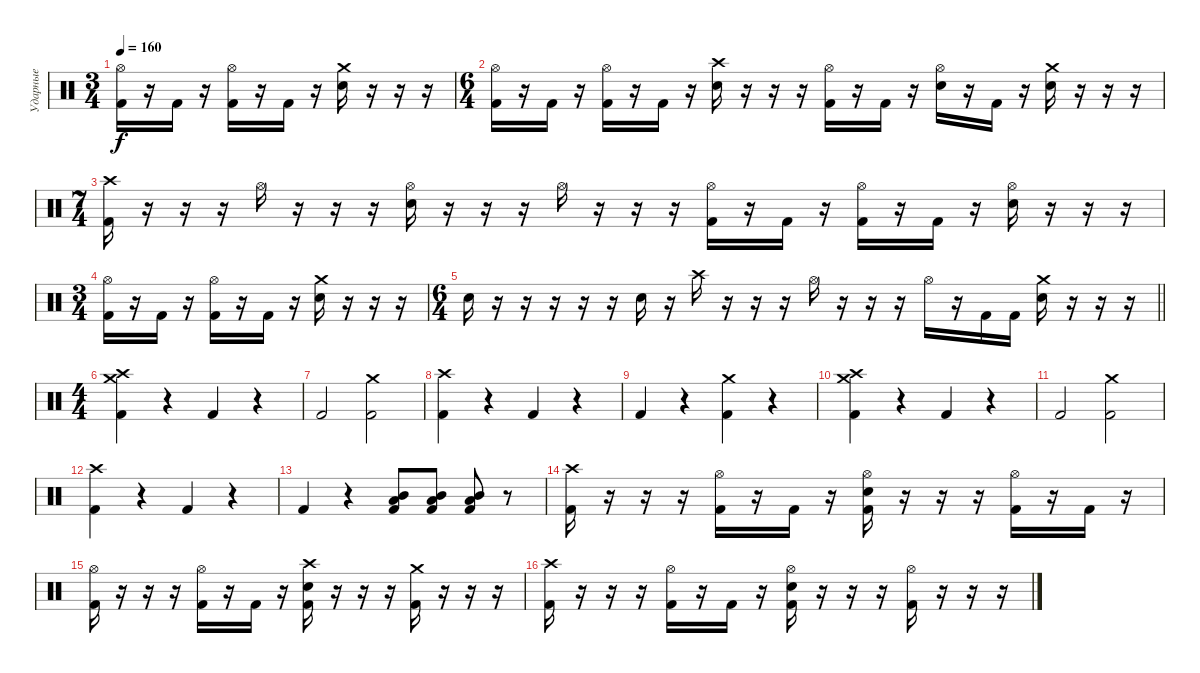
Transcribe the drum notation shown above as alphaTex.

\track ("Ударные" "Ударные") {instrument percussion}
\staff {score}
\articulation defaults
\ts (3 4)
\tempo 160
\clef neutral
\ks c
("Hi-Hat (open)" "Kick (hit) 2").16{dy f} r.16 "Kick (hit) 2".16 r.16 ("Hi-Hat (open)" "Kick (hit) 2").16 r.16 "Kick (hit) 2".16 r.16 ("Crash medium (hit)" "Electric Snare (hit)").16 r.16 r.16 r.16 |
\ts (6 4)
("Hi-Hat (open)" "Kick (hit) 2").16 r.16 "Kick (hit) 2".16 r.16 ("Hi-Hat (open)" "Kick (hit) 2").16 r.16 "Kick (hit) 2".16 r.16 ("Crash high (hit)" "Electric Snare (hit)").16 r.16 r.16 r.16 ("Hi-Hat (open)" "Kick (hit) 2").16 r.16 "Kick (hit) 2".16 r.16 ("Hi-Hat (open)" "Electric Snare (hit)").16 r.16 "Kick (hit) 2".16 r.16 ("Crash medium (hit)" "Electric Snare (hit)").16 r.16 r.16 r.16 |
\ts (7 4)
("Crash high (hit)" "Kick (hit) 2").16 r.16 r.16 r.16 "Hi-Hat (open)".16 r.16 r.16 r.16 ("Hi-Hat (open)" "Electric Snare (hit)").16 r.16 r.16 r.16 "Hi-Hat (open)".16 r.16 r.16 r.16 ("Hi-Hat (open)" "Kick (hit) 2").16 r.16 "Kick (hit) 2".16 r.16 ("Hi-Hat (open)" "Kick (hit) 2").16 r.16 "Kick (hit) 2".16 r.16 ("Hi-Hat (open)" "Electric Snare (hit)").16 r.16 r.16 r.16 |
\ts (3 4)
("Hi-Hat (open)" "Kick (hit) 2").16 r.16 "Kick (hit) 2".16 r.16 ("Hi-Hat (open)" "Kick (hit) 2").16 r.16 "Kick (hit) 2".16 r.16 ("Crash medium (hit)" "Electric Snare (hit)").16 r.16 r.16 r.16 |
\ts (6 4)
\barLineRight lightlight "Electric Snare (hit)".16
r.16 r.16 r.16 r.16 r.16 "Electric Snare (hit)".16 r.16 "Crash high (hit)".16 r.16 r.16 r.16 "Hi-Hat (open)".16 r.16 r.16 r.16 "Hi-Hat (open)".16 r.16 "Kick (hit) 2".16 "Kick (hit) 2".16 ("Crash medium (hit)" "Electric Snare (hit)").16 r.16 r.16 r.16 |
\ts (4 4)
\section ("" "")
("Crash high (hit)" "Crash medium (hit)" "Kick (hit) 2").4 r.4 "Kick (hit) 2".4 r.4 |
"Kick (hit) 2".2 ("Crash medium (hit)" "Kick (hit) 2").2 |
("Crash high (hit)" "Kick (hit) 2").4 r.4 "Kick (hit) 2".4 r.4 |
"Kick (hit) 2".4 r.4 ("Crash medium (hit)" "Kick (hit) 2").4 r.4 |
("Crash high (hit)" "Crash medium (hit)" "Kick (hit) 2").4 r.4 "Kick (hit) 2".4 r.4 |
"Kick (hit) 2".2 ("Crash medium (hit)" "Kick (hit) 2").2 |
("Crash high (hit)" "Kick (hit) 2").4 r.4 "Kick (hit) 2".4 r.4 |
"Kick (hit) 2".4 r.4 ("Low Tom (hit)" "Mid Tom (hit)" "Kick (hit) 2").8 ("Low Tom (hit)" "Mid Tom (hit)" "Kick (hit) 2").8 ("Low Tom (hit)" "Mid Tom (hit)" "Kick (hit) 2").8 r.8 |
("Crash high (hit)" "Kick (hit) 2").16 r.16 r.16 r.16 ("Hi-Hat (open)" "Kick (hit) 2").16 r.16 "Kick (hit) 2".16 r.16 ("Hi-Hat (open)" "Electric Snare (hit)" "Kick (hit) 2").16 r.16 r.16 r.16 ("Hi-Hat (open)" "Kick (hit) 2").16 r.16 "Kick (hit) 2".16 r.16 |
("Hi-Hat (open)" "Kick (hit) 2").16 r.16 r.16 r.16 ("Hi-Hat (open)" "Kick (hit) 2").16 r.16 "Kick (hit) 2".16 r.16 ("Crash high (hit)" "Electric Snare (hit)" "Kick (hit) 2").16 r.16 r.16 r.16 ("Crash medium (hit)" "Kick (hit) 2").16 r.16 r.16 r.16 |
("Crash high (hit)" "Kick (hit) 2").16 r.16 r.16 r.16 ("Hi-Hat (open)" "Kick (hit) 2").16 r.16 "Kick (hit) 2".16 r.16 ("Hi-Hat (open)" "Electric Snare (hit)" "Kick (hit) 2").16 r.16 r.16 r.16 ("Hi-Hat (open)" "Kick (hit) 2").16 r.16 r.16 r.16
